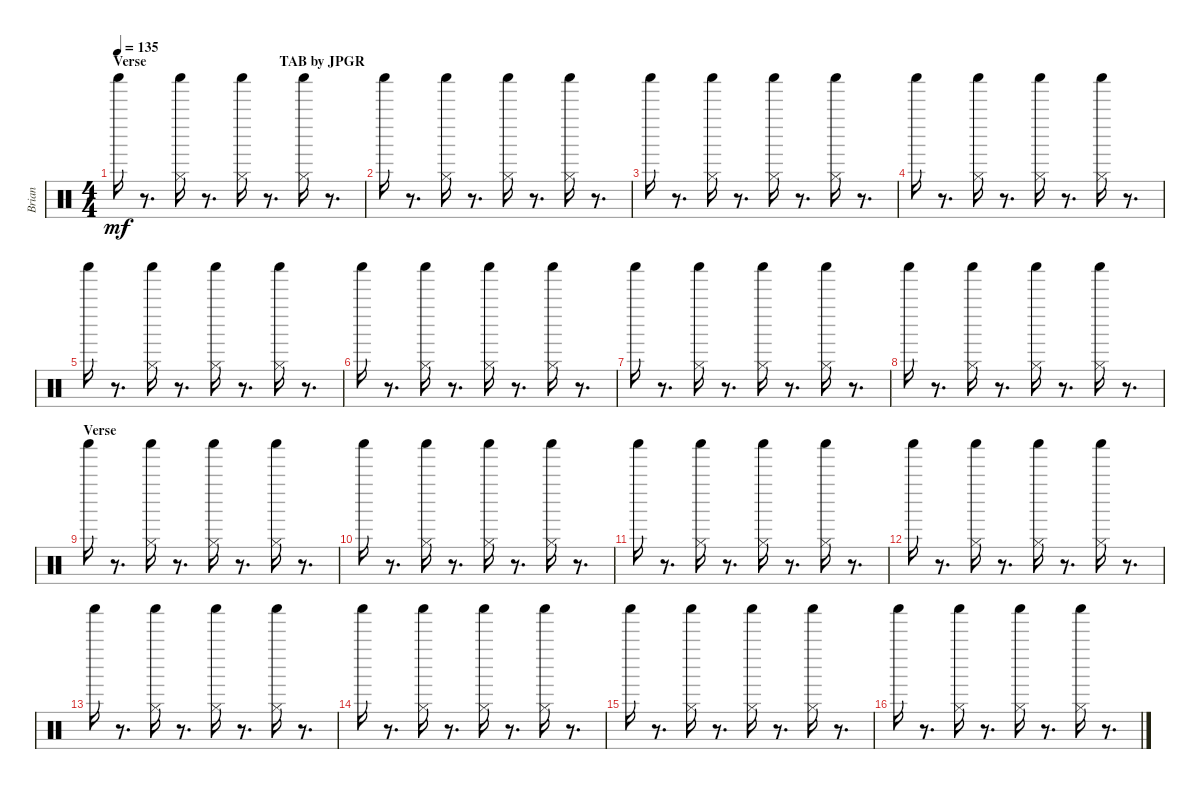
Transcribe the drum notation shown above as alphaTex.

\track ("Brian" "Brian") {instrument percussion}
\staff {score}
\articulation defaults
\ts (4 4)
\section ("" "Verse                                      TAB by JPGR")
\tempo 135
\clef neutral
\ks c "Shaker (hit)".16{dy mf}
r.8{d} ("Shaker (hit)" "Hi-Hat (closed)").16 r.8{d} ("Shaker (hit)" "Hi-Hat (closed)").16 r.8{d} ("Shaker (hit)" "Hi-Hat (closed)").16 r.8{d} |
"Shaker (hit)".16 r.8{d} ("Shaker (hit)" "Hi-Hat (closed)").16 r.8{d} ("Shaker (hit)" "Hi-Hat (closed)").16 r.8{d} ("Shaker (hit)" "Hi-Hat (closed)").16 r.8{d} |
"Shaker (hit)".16 r.8{d} ("Shaker (hit)" "Hi-Hat (closed)").16 r.8{d} ("Shaker (hit)" "Hi-Hat (closed)").16 r.8{d} ("Shaker (hit)" "Hi-Hat (closed)").16 r.8{d} |
"Shaker (hit)".16 r.8{d} ("Shaker (hit)" "Hi-Hat (closed)").16 r.8{d} ("Shaker (hit)" "Hi-Hat (closed)").16 r.8{d} ("Shaker (hit)" "Hi-Hat (closed)").16 r.8{d} |
"Shaker (hit)".16 r.8{d} ("Shaker (hit)" "Hi-Hat (closed)").16 r.8{d} ("Shaker (hit)" "Hi-Hat (closed)").16 r.8{d} ("Shaker (hit)" "Hi-Hat (closed)").16 r.8{d} |
"Shaker (hit)".16 r.8{d} ("Shaker (hit)" "Hi-Hat (closed)").16 r.8{d} ("Shaker (hit)" "Hi-Hat (closed)").16 r.8{d} ("Shaker (hit)" "Hi-Hat (closed)").16 r.8{d} |
"Shaker (hit)".16 r.8{d} ("Shaker (hit)" "Hi-Hat (closed)").16 r.8{d} ("Shaker (hit)" "Hi-Hat (closed)").16 r.8{d} ("Shaker (hit)" "Hi-Hat (closed)").16 r.8{d} |
"Shaker (hit)".16 r.8{d} ("Shaker (hit)" "Hi-Hat (closed)").16 r.8{d} ("Shaker (hit)" "Hi-Hat (closed)").16 r.8{d} ("Shaker (hit)" "Hi-Hat (closed)").16 r.8{d} |
\section ("" "Verse")
"Shaker (hit)".16 r.8{d} ("Shaker (hit)" "Hi-Hat (closed)").16 r.8{d} ("Shaker (hit)" "Hi-Hat (closed)").16 r.8{d} ("Shaker (hit)" "Hi-Hat (closed)").16 r.8{d} |
"Shaker (hit)".16 r.8{d} ("Shaker (hit)" "Hi-Hat (closed)").16 r.8{d} ("Shaker (hit)" "Hi-Hat (closed)").16 r.8{d} ("Shaker (hit)" "Hi-Hat (closed)").16 r.8{d} |
"Shaker (hit)".16 r.8{d} ("Shaker (hit)" "Hi-Hat (closed)").16 r.8{d} ("Shaker (hit)" "Hi-Hat (closed)").16 r.8{d} ("Shaker (hit)" "Hi-Hat (closed)").16 r.8{d} |
"Shaker (hit)".16 r.8{d} ("Shaker (hit)" "Hi-Hat (closed)").16 r.8{d} ("Shaker (hit)" "Hi-Hat (closed)").16 r.8{d} ("Shaker (hit)" "Hi-Hat (closed)").16 r.8{d} |
"Shaker (hit)".16 r.8{d} ("Shaker (hit)" "Hi-Hat (closed)").16 r.8{d} ("Shaker (hit)" "Hi-Hat (closed)").16 r.8{d} ("Shaker (hit)" "Hi-Hat (closed)").16 r.8{d} |
"Shaker (hit)".16 r.8{d} ("Shaker (hit)" "Hi-Hat (closed)").16 r.8{d} ("Shaker (hit)" "Hi-Hat (closed)").16 r.8{d} ("Shaker (hit)" "Hi-Hat (closed)").16 r.8{d} |
"Shaker (hit)".16 r.8{d} ("Shaker (hit)" "Hi-Hat (closed)").16 r.8{d} ("Shaker (hit)" "Hi-Hat (closed)").16 r.8{d} ("Shaker (hit)" "Hi-Hat (closed)").16 r.8{d} |
"Shaker (hit)".16 r.8{d} ("Shaker (hit)" "Hi-Hat (closed)").16 r.8{d} ("Shaker (hit)" "Hi-Hat (closed)").16 r.8{d} ("Shaker (hit)" "Hi-Hat (closed)").16 r.8{d}
